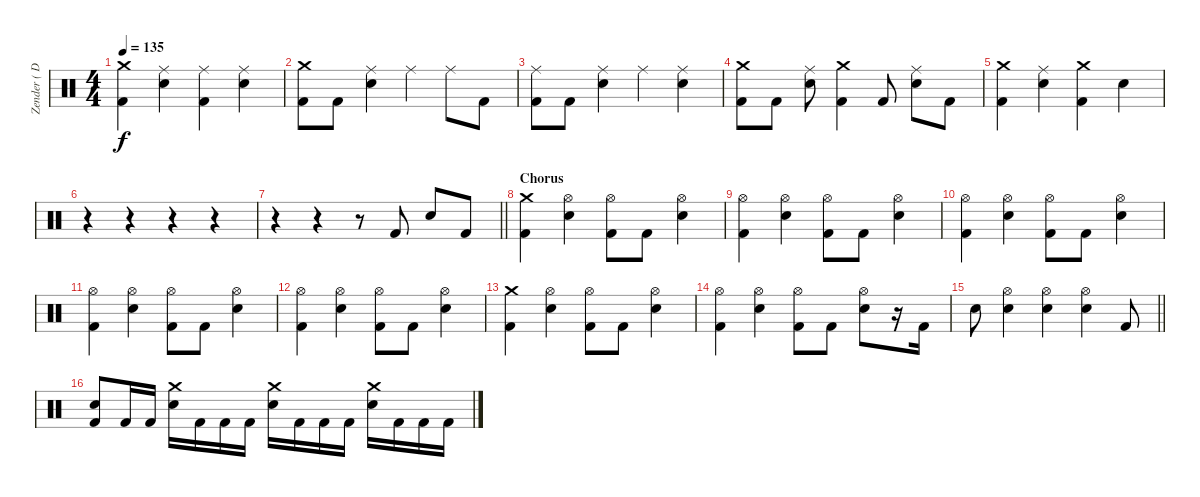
\track ("Zender ( Drums )" "Zender ( D") {instrument percussion}
\staff {score}
\articulation defaults
\ts (4 4)
\tempo 135
\clef neutral
\ks c
("Crash medium (hit)" "Kick (hit) 2").4{dy f} ("Ride (middle)" "Snare (hit) 2").4 ("Ride (middle)" "Kick (hit) 2").4 ("Ride (middle)" "Snare (hit) 2").4 |
("Crash medium (hit)" "Kick (hit) 2").8 "Kick (hit) 2".8 ("Ride (middle)" "Snare (hit) 2").4 "Ride (middle)".4 "Ride (middle)".8 "Kick (hit) 2".8 |
("Ride (middle)" "Kick (hit) 2").8 "Kick (hit) 2".8 ("Ride (middle)" "Snare (hit) 2").4 "Ride (middle)".4 ("Ride (middle)" "Snare (hit) 2").4 |
("Crash medium (hit)" "Kick (hit) 2").8 "Kick (hit) 2".8 ("Ride (middle)" "Snare (hit) 2").8 ("Crash medium (hit)" "Kick (hit) 2").4 "Kick (hit) 2".8 ("Ride (middle)" "Snare (hit) 2").8 "Kick (hit) 2".8 |
("Crash medium (hit)" "Kick (hit) 2").4 ("Ride (middle)" "Snare (hit) 2").4 ("Crash medium (hit)" "Kick (hit) 2").4 "Snare (hit) 2".4 |
r.4 r.4 r.4 r.4 |
\barLineRight lightlight
r.4 r.4 r.8 "Kick (hit) 2".8 "Snare (hit) 2".8 "Kick (hit) 2".8 |
\section ("" "Chorus")
("Crash medium (hit)" "Kick (hit) 2").4 ("Hi-Hat (open)" "Snare (hit) 2").4 ("Hi-Hat (open)" "Kick (hit) 2").8 "Kick (hit) 2".8 ("Hi-Hat (open)" "Snare (hit) 2").4 |
("Hi-Hat (open)" "Kick (hit) 2").4 ("Hi-Hat (open)" "Snare (hit) 2").4 ("Hi-Hat (open)" "Kick (hit) 2").8 "Kick (hit) 2".8 ("Hi-Hat (open)" "Snare (hit) 2").4 |
("Hi-Hat (open)" "Kick (hit) 2").4 ("Hi-Hat (open)" "Snare (hit) 2").4 ("Hi-Hat (open)" "Kick (hit) 2").8 "Kick (hit) 2".8 ("Hi-Hat (open)" "Snare (hit) 2").4 |
("Hi-Hat (open)" "Kick (hit) 2").4 ("Hi-Hat (open)" "Snare (hit) 2").4 ("Hi-Hat (open)" "Kick (hit) 2").8 "Kick (hit) 2".8 ("Hi-Hat (open)" "Snare (hit) 2").4 |
("Hi-Hat (open)" "Kick (hit) 2").4 ("Hi-Hat (open)" "Snare (hit) 2").4 ("Hi-Hat (open)" "Kick (hit) 2").8 "Kick (hit) 2".8 ("Hi-Hat (open)" "Snare (hit) 2").4 |
("Crash medium (hit)" "Kick (hit) 2").4 ("Hi-Hat (open)" "Snare (hit) 2").4 ("Hi-Hat (open)" "Kick (hit) 2").8 "Kick (hit) 2".8 ("Hi-Hat (open)" "Snare (hit) 2").4 |
("Hi-Hat (open)" "Kick (hit) 2").4 ("Hi-Hat (open)" "Snare (hit) 2").4 ("Hi-Hat (open)" "Kick (hit) 2").8 "Kick (hit) 2".8 ("Hi-Hat (open)" "Snare (hit) 2").8 r.16 "Kick (hit) 2".16 |
\barLineRight lightlight "Snare (hit) 2".8
("Hi-Hat (open)" "Snare (hit) 2").4 ("Hi-Hat (open)" "Snare (hit) 2").4 ("Hi-Hat (open)" "Snare (hit) 2").4 "Kick (hit) 2".8 |
("Snare (hit) 2" "Kick (hit) 2").8 "Kick (hit) 2".16 "Kick (hit) 2".16 ("Crash medium (hit)" "Snare (hit) 2").16 "Kick (hit) 2".16 "Kick (hit) 2".16 "Kick (hit) 2".16 ("Crash medium (hit)" "Snare (hit) 2").16 "Kick (hit) 2".16 "Kick (hit) 2".16 "Kick (hit) 2".16 ("Crash medium (hit)" "Snare (hit) 2").16 "Kick (hit) 2".16 "Kick (hit) 2".16 "Kick (hit) 2".16
